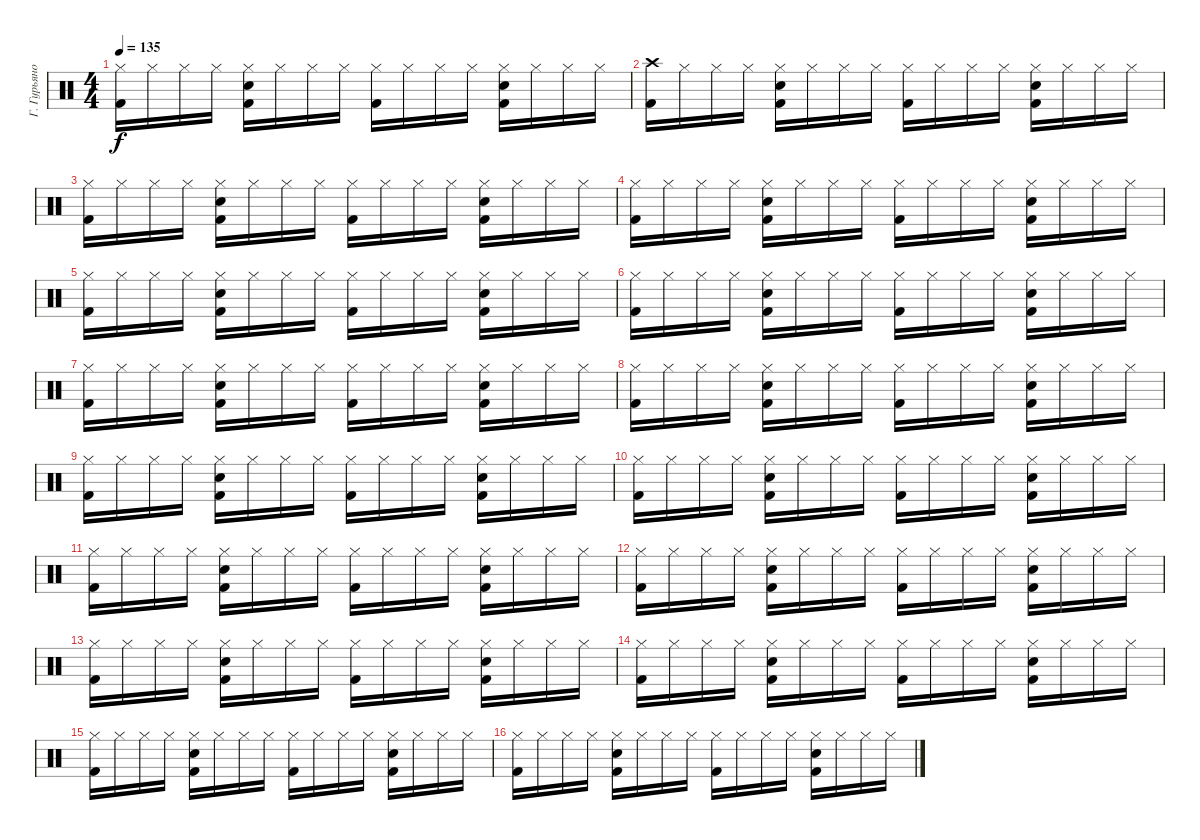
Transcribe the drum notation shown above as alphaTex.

\track ("Г. Гурьянов" "Г. Гурьяно") {instrument percussion}
\staff {score}
\articulation defaults
\ts (4 4)
\tempo 135
\clef neutral
\ks c
("Hi-Hat (closed)" "Kick (hit) 2").16{dy f} "Hi-Hat (closed)".16 "Hi-Hat (closed)".16 "Hi-Hat (closed)".16 ("Hi-Hat (closed)" "Electric Snare (hit)" "Kick (hit) 2").16 "Hi-Hat (closed)".16 "Hi-Hat (closed)".16 "Hi-Hat (closed)".16 ("Hi-Hat (closed)" "Kick (hit) 2").16 "Hi-Hat (closed)".16 "Hi-Hat (closed)".16 "Hi-Hat (closed)".16 ("Hi-Hat (closed)" "Electric Snare (hit)" "Kick (hit) 2").16 "Hi-Hat (closed)".16 "Hi-Hat (closed)".16 "Hi-Hat (closed)".16 |
("Crash high (hit)" "Kick (hit) 2").16 "Hi-Hat (closed)".16 "Hi-Hat (closed)".16 "Hi-Hat (closed)".16 ("Hi-Hat (closed)" "Electric Snare (hit)" "Kick (hit) 2").16 "Hi-Hat (closed)".16 "Hi-Hat (closed)".16 "Hi-Hat (closed)".16 ("Hi-Hat (closed)" "Kick (hit) 2").16 "Hi-Hat (closed)".16 "Hi-Hat (closed)".16 "Hi-Hat (closed)".16 ("Hi-Hat (closed)" "Electric Snare (hit)" "Kick (hit) 2").16 "Hi-Hat (closed)".16 "Hi-Hat (closed)".16 "Hi-Hat (closed)".16 |
("Hi-Hat (closed)" "Kick (hit) 2").16 "Hi-Hat (closed)".16 "Hi-Hat (closed)".16 "Hi-Hat (closed)".16 ("Hi-Hat (closed)" "Electric Snare (hit)" "Kick (hit) 2").16 "Hi-Hat (closed)".16 "Hi-Hat (closed)".16 "Hi-Hat (closed)".16 ("Hi-Hat (closed)" "Kick (hit) 2").16 "Hi-Hat (closed)".16 "Hi-Hat (closed)".16 "Hi-Hat (closed)".16 ("Hi-Hat (closed)" "Electric Snare (hit)" "Kick (hit) 2").16 "Hi-Hat (closed)".16 "Hi-Hat (closed)".16 "Hi-Hat (closed)".16 |
("Hi-Hat (closed)" "Kick (hit) 2").16 "Hi-Hat (closed)".16 "Hi-Hat (closed)".16 "Hi-Hat (closed)".16 ("Hi-Hat (closed)" "Electric Snare (hit)" "Kick (hit) 2").16 "Hi-Hat (closed)".16 "Hi-Hat (closed)".16 "Hi-Hat (closed)".16 ("Hi-Hat (closed)" "Kick (hit) 2").16 "Hi-Hat (closed)".16 "Hi-Hat (closed)".16 "Hi-Hat (closed)".16 ("Hi-Hat (closed)" "Electric Snare (hit)" "Kick (hit) 2").16 "Hi-Hat (closed)".16 "Hi-Hat (closed)".16 "Hi-Hat (closed)".16 |
("Hi-Hat (closed)" "Kick (hit) 2").16 "Hi-Hat (closed)".16 "Hi-Hat (closed)".16 "Hi-Hat (closed)".16 ("Hi-Hat (closed)" "Electric Snare (hit)" "Kick (hit) 2").16 "Hi-Hat (closed)".16 "Hi-Hat (closed)".16 "Hi-Hat (closed)".16 ("Hi-Hat (closed)" "Kick (hit) 2").16 "Hi-Hat (closed)".16 "Hi-Hat (closed)".16 "Hi-Hat (closed)".16 ("Hi-Hat (closed)" "Electric Snare (hit)" "Kick (hit) 2").16 "Hi-Hat (closed)".16 "Hi-Hat (closed)".16 "Hi-Hat (closed)".16 |
("Hi-Hat (closed)" "Kick (hit) 2").16 "Hi-Hat (closed)".16 "Hi-Hat (closed)".16 "Hi-Hat (closed)".16 ("Hi-Hat (closed)" "Electric Snare (hit)" "Kick (hit) 2").16 "Hi-Hat (closed)".16 "Hi-Hat (closed)".16 "Hi-Hat (closed)".16 ("Hi-Hat (closed)" "Kick (hit) 2").16 "Hi-Hat (closed)".16 "Hi-Hat (closed)".16 "Hi-Hat (closed)".16 ("Hi-Hat (closed)" "Electric Snare (hit)" "Kick (hit) 2").16 "Hi-Hat (closed)".16 "Hi-Hat (closed)".16 "Hi-Hat (closed)".16 |
("Hi-Hat (closed)" "Kick (hit) 2").16 "Hi-Hat (closed)".16 "Hi-Hat (closed)".16 "Hi-Hat (closed)".16 ("Hi-Hat (closed)" "Electric Snare (hit)" "Kick (hit) 2").16 "Hi-Hat (closed)".16 "Hi-Hat (closed)".16 "Hi-Hat (closed)".16 ("Hi-Hat (closed)" "Kick (hit) 2").16 "Hi-Hat (closed)".16 "Hi-Hat (closed)".16 "Hi-Hat (closed)".16 ("Hi-Hat (closed)" "Electric Snare (hit)" "Kick (hit) 2").16 "Hi-Hat (closed)".16 "Hi-Hat (closed)".16 "Hi-Hat (closed)".16 |
("Hi-Hat (closed)" "Kick (hit) 2").16 "Hi-Hat (closed)".16 "Hi-Hat (closed)".16 "Hi-Hat (closed)".16 ("Hi-Hat (closed)" "Electric Snare (hit)" "Kick (hit) 2").16 "Hi-Hat (closed)".16 "Hi-Hat (closed)".16 "Hi-Hat (closed)".16 ("Hi-Hat (closed)" "Kick (hit) 2").16 "Hi-Hat (closed)".16 "Hi-Hat (closed)".16 "Hi-Hat (closed)".16 ("Hi-Hat (closed)" "Electric Snare (hit)" "Kick (hit) 2").16 "Hi-Hat (closed)".16 "Hi-Hat (closed)".16 "Hi-Hat (closed)".16 |
("Hi-Hat (closed)" "Kick (hit) 2").16 "Hi-Hat (closed)".16 "Hi-Hat (closed)".16 "Hi-Hat (closed)".16 ("Hi-Hat (closed)" "Electric Snare (hit)" "Kick (hit) 2").16 "Hi-Hat (closed)".16 "Hi-Hat (closed)".16 "Hi-Hat (closed)".16 ("Hi-Hat (closed)" "Kick (hit) 2").16 "Hi-Hat (closed)".16 "Hi-Hat (closed)".16 "Hi-Hat (closed)".16 ("Hi-Hat (closed)" "Electric Snare (hit)" "Kick (hit) 2").16 "Hi-Hat (closed)".16 "Hi-Hat (closed)".16 "Hi-Hat (closed)".16 |
("Hi-Hat (closed)" "Kick (hit) 2").16 "Hi-Hat (closed)".16 "Hi-Hat (closed)".16 "Hi-Hat (closed)".16 ("Hi-Hat (closed)" "Electric Snare (hit)" "Kick (hit) 2").16 "Hi-Hat (closed)".16 "Hi-Hat (closed)".16 "Hi-Hat (closed)".16 ("Hi-Hat (closed)" "Kick (hit) 2").16 "Hi-Hat (closed)".16 "Hi-Hat (closed)".16 "Hi-Hat (closed)".16 ("Hi-Hat (closed)" "Electric Snare (hit)" "Kick (hit) 2").16 "Hi-Hat (closed)".16 "Hi-Hat (closed)".16 "Hi-Hat (closed)".16 |
("Hi-Hat (closed)" "Kick (hit) 2").16 "Hi-Hat (closed)".16 "Hi-Hat (closed)".16 "Hi-Hat (closed)".16 ("Hi-Hat (closed)" "Electric Snare (hit)" "Kick (hit) 2").16 "Hi-Hat (closed)".16 "Hi-Hat (closed)".16 "Hi-Hat (closed)".16 ("Hi-Hat (closed)" "Kick (hit) 2").16 "Hi-Hat (closed)".16 "Hi-Hat (closed)".16 "Hi-Hat (closed)".16 ("Hi-Hat (closed)" "Electric Snare (hit)" "Kick (hit) 2").16 "Hi-Hat (closed)".16 "Hi-Hat (closed)".16 "Hi-Hat (closed)".16 |
("Hi-Hat (closed)" "Kick (hit) 2").16 "Hi-Hat (closed)".16 "Hi-Hat (closed)".16 "Hi-Hat (closed)".16 ("Hi-Hat (closed)" "Electric Snare (hit)" "Kick (hit) 2").16 "Hi-Hat (closed)".16 "Hi-Hat (closed)".16 "Hi-Hat (closed)".16 ("Hi-Hat (closed)" "Kick (hit) 2").16 "Hi-Hat (closed)".16 "Hi-Hat (closed)".16 "Hi-Hat (closed)".16 ("Hi-Hat (closed)" "Electric Snare (hit)" "Kick (hit) 2").16 "Hi-Hat (closed)".16 "Hi-Hat (closed)".16 "Hi-Hat (closed)".16 |
("Hi-Hat (closed)" "Kick (hit) 2").16 "Hi-Hat (closed)".16 "Hi-Hat (closed)".16 "Hi-Hat (closed)".16 ("Hi-Hat (closed)" "Electric Snare (hit)" "Kick (hit) 2").16 "Hi-Hat (closed)".16 "Hi-Hat (closed)".16 "Hi-Hat (closed)".16 ("Hi-Hat (closed)" "Kick (hit) 2").16 "Hi-Hat (closed)".16 "Hi-Hat (closed)".16 "Hi-Hat (closed)".16 ("Hi-Hat (closed)" "Electric Snare (hit)" "Kick (hit) 2").16 "Hi-Hat (closed)".16 "Hi-Hat (closed)".16 "Hi-Hat (closed)".16 |
("Hi-Hat (closed)" "Kick (hit) 2").16 "Hi-Hat (closed)".16 "Hi-Hat (closed)".16 "Hi-Hat (closed)".16 ("Hi-Hat (closed)" "Electric Snare (hit)" "Kick (hit) 2").16 "Hi-Hat (closed)".16 "Hi-Hat (closed)".16 "Hi-Hat (closed)".16 ("Hi-Hat (closed)" "Kick (hit) 2").16 "Hi-Hat (closed)".16 "Hi-Hat (closed)".16 "Hi-Hat (closed)".16 ("Hi-Hat (closed)" "Electric Snare (hit)" "Kick (hit) 2").16 "Hi-Hat (closed)".16 "Hi-Hat (closed)".16 "Hi-Hat (closed)".16 |
("Hi-Hat (closed)" "Kick (hit) 2").16 "Hi-Hat (closed)".16 "Hi-Hat (closed)".16 "Hi-Hat (closed)".16 ("Hi-Hat (closed)" "Electric Snare (hit)" "Kick (hit) 2").16 "Hi-Hat (closed)".16 "Hi-Hat (closed)".16 "Hi-Hat (closed)".16 ("Hi-Hat (closed)" "Kick (hit) 2").16 "Hi-Hat (closed)".16 "Hi-Hat (closed)".16 "Hi-Hat (closed)".16 ("Hi-Hat (closed)" "Electric Snare (hit)" "Kick (hit) 2").16 "Hi-Hat (closed)".16 "Hi-Hat (closed)".16 "Hi-Hat (closed)".16 |
("Hi-Hat (closed)" "Kick (hit) 2").16 "Hi-Hat (closed)".16 "Hi-Hat (closed)".16 "Hi-Hat (closed)".16 ("Hi-Hat (closed)" "Electric Snare (hit)" "Kick (hit) 2").16 "Hi-Hat (closed)".16 "Hi-Hat (closed)".16 "Hi-Hat (closed)".16 ("Hi-Hat (closed)" "Kick (hit) 2").16 "Hi-Hat (closed)".16 "Hi-Hat (closed)".16 "Hi-Hat (closed)".16 ("Hi-Hat (closed)" "Electric Snare (hit)" "Kick (hit) 2").16 "Hi-Hat (closed)".16 "Hi-Hat (closed)".16 "Hi-Hat (closed)".16
